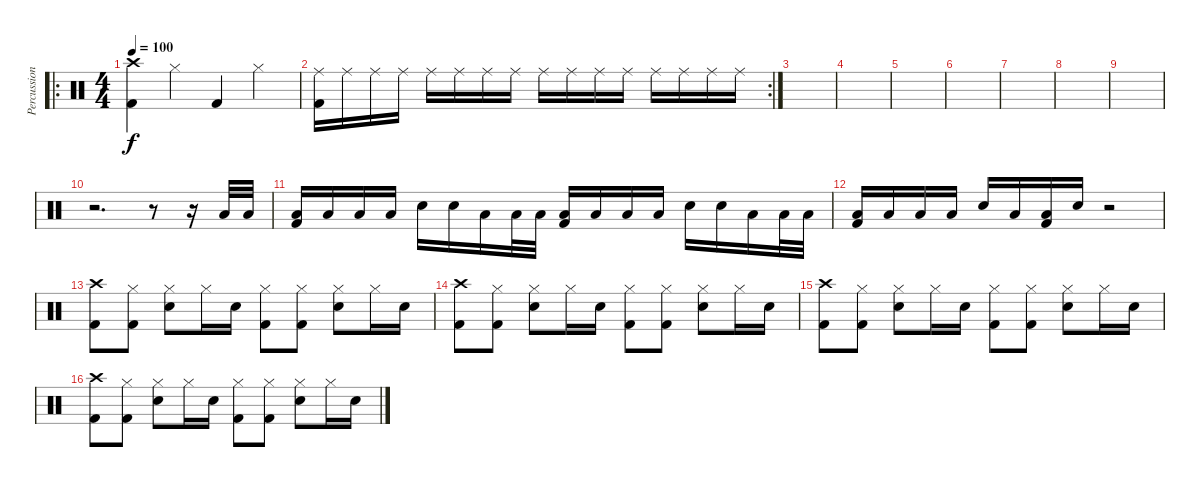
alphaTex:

\track ("Percussion" "Percussion") {instrument percussion}
\staff {score}
\articulation defaults
\ro
\ts (4 4)
\tempo 100
\clef neutral
\ks c
("Crash high (hit)" "Kick (hit) 2").4{dy f} "Hi-Hat (closed)".4 "Kick (hit) 2".4 "Hi-Hat (closed)".4 |
\rc 2
("Ride (middle)" "Kick (hit) 2").16 "Ride (middle)".16 "Ride (middle)".16 "Ride (middle)".16 "Ride (middle)".16 "Ride (middle)".16 "Ride (middle)".16 "Ride (middle)".16 "Ride (middle)".16 "Ride (middle)".16 "Ride (middle)".16 "Ride (middle)".16 "Ride (middle)".16 "Ride (middle)".16 "Ride (middle)".16 "Ride (middle)".16 |
|
|
|
|
|
|
|
r.2{d} r.8 r.16 "Low Floor Tom (hit)".32 "Low Floor Tom (hit)".32 |
("Low Floor Tom (hit)" "Kick (hit) 2").16 "Low Floor Tom (hit)".16 "Low Floor Tom (hit)".16 "Low Floor Tom (hit)".16 "Snare (hit) 2".16 "Snare (hit) 2".16 "Low Floor Tom (hit)".16 "Low Floor Tom (hit)".32 "Low Floor Tom (hit)".32 ("Low Floor Tom (hit)" "Kick (hit) 2").16 "Low Floor Tom (hit)".16 "Low Floor Tom (hit)".16 "Low Floor Tom (hit)".16 "Snare (hit) 2".16 "Snare (hit) 2".16 "Low Floor Tom (hit)".16 "Low Floor Tom (hit)".32 "Low Floor Tom (hit)".32 |
("Low Floor Tom (hit)" "Kick (hit) 2").16 "Low Floor Tom (hit)".16 "Low Floor Tom (hit)".16 "Low Floor Tom (hit)".16 "Snare (hit) 2".16 "Low Floor Tom (hit)".16 ("Low Floor Tom (hit)" "Kick (hit) 2").16 "Snare (hit) 2".16 r.2 |
("Crash high (hit)" "Kick (hit) 2").8 ("Hi-Hat (closed)" "Kick (hit) 2").8 ("Hi-Hat (closed)" "Snare (hit) 2").8 "Hi-Hat (closed)".16 "Snare (hit) 2".16 ("Hi-Hat (closed)" "Kick (hit) 2").8 ("Hi-Hat (closed)" "Kick (hit) 2").8 ("Hi-Hat (closed)" "Snare (hit) 2").8 "Hi-Hat (closed)".16 "Snare (hit) 2".16 |
("Crash high (hit)" "Kick (hit) 2").8 ("Hi-Hat (closed)" "Kick (hit) 2").8 ("Hi-Hat (closed)" "Snare (hit) 2").8 "Hi-Hat (closed)".16 "Snare (hit) 2".16 ("Hi-Hat (closed)" "Kick (hit) 2").8 ("Hi-Hat (closed)" "Kick (hit) 2").8 ("Hi-Hat (closed)" "Snare (hit) 2").8 "Hi-Hat (closed)".16 "Snare (hit) 2".16 |
("Crash high (hit)" "Kick (hit) 2").8 ("Hi-Hat (closed)" "Kick (hit) 2").8 ("Hi-Hat (closed)" "Snare (hit) 2").8 "Hi-Hat (closed)".16 "Snare (hit) 2".16 ("Hi-Hat (closed)" "Kick (hit) 2").8 ("Hi-Hat (closed)" "Kick (hit) 2").8 ("Hi-Hat (closed)" "Snare (hit) 2").8 "Hi-Hat (closed)".16 "Snare (hit) 2".16 |
("Crash high (hit)" "Kick (hit) 2").8 ("Hi-Hat (closed)" "Kick (hit) 2").8 ("Hi-Hat (closed)" "Snare (hit) 2").8 "Hi-Hat (closed)".16 "Snare (hit) 2".16 ("Hi-Hat (closed)" "Kick (hit) 2").8 ("Hi-Hat (closed)" "Kick (hit) 2").8 ("Hi-Hat (closed)" "Snare (hit) 2").8 "Hi-Hat (closed)".16 "Snare (hit) 2".16
